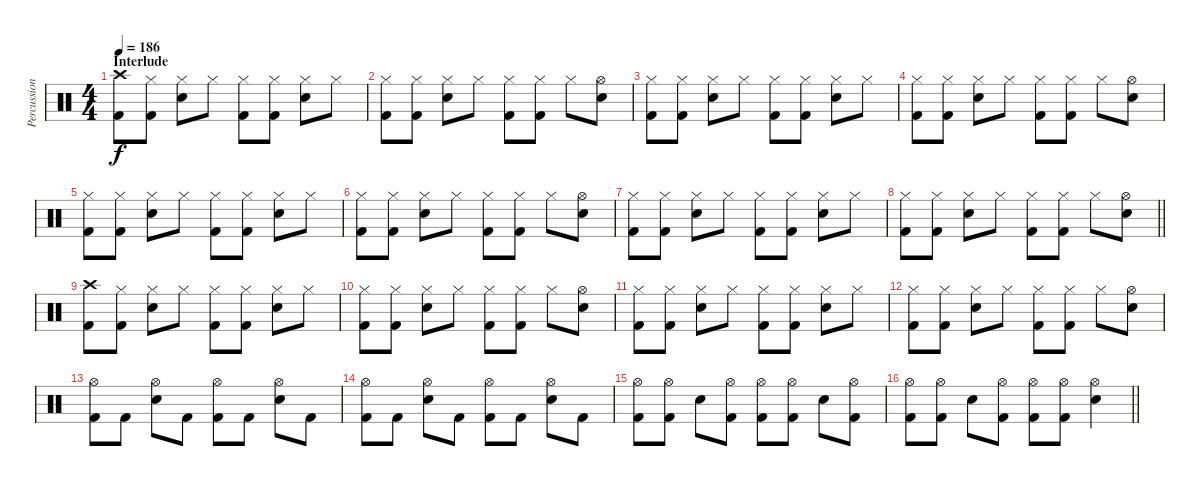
\track ("Percussion" "Percussion") {instrument percussion}
\staff {score}
\articulation defaults
\ts (4 4)
\section ("" "Interlude")
\tempo 186
\clef neutral
\ks c
("Crash high (hit)" "Kick (hit) 2").8{dy f} ("Hi-Hat (closed)" "Kick (hit) 2").8 ("Hi-Hat (closed)" "Electric Snare (hit)").8 "Hi-Hat (closed)".8 ("Hi-Hat (closed)" "Kick (hit) 2").8 ("Hi-Hat (closed)" "Kick (hit) 2").8 ("Hi-Hat (closed)" "Electric Snare (hit)").8 "Hi-Hat (closed)".8 |
("Hi-Hat (closed)" "Kick (hit) 2").8 ("Hi-Hat (closed)" "Kick (hit) 2").8 ("Hi-Hat (closed)" "Electric Snare (hit)").8 "Hi-Hat (closed)".8 ("Hi-Hat (closed)" "Kick (hit) 2").8 ("Hi-Hat (closed)" "Kick (hit) 2").8 "Hi-Hat (closed)".8 ("Hi-Hat (open)" "Electric Snare (hit)").8 |
("Hi-Hat (closed)" "Kick (hit) 2").8 ("Hi-Hat (closed)" "Kick (hit) 2").8 ("Hi-Hat (closed)" "Electric Snare (hit)").8 "Hi-Hat (closed)".8 ("Hi-Hat (closed)" "Kick (hit) 2").8 ("Hi-Hat (closed)" "Kick (hit) 2").8 ("Hi-Hat (closed)" "Electric Snare (hit)").8 "Hi-Hat (closed)".8 |
("Hi-Hat (closed)" "Kick (hit) 2").8 ("Hi-Hat (closed)" "Kick (hit) 2").8 ("Hi-Hat (closed)" "Electric Snare (hit)").8 "Hi-Hat (closed)".8 ("Hi-Hat (closed)" "Kick (hit) 2").8 ("Hi-Hat (closed)" "Kick (hit) 2").8 "Hi-Hat (closed)".8 ("Hi-Hat (open)" "Electric Snare (hit)").8 |
("Hi-Hat (closed)" "Kick (hit) 2").8 ("Hi-Hat (closed)" "Kick (hit) 2").8 ("Hi-Hat (closed)" "Electric Snare (hit)").8 "Hi-Hat (closed)".8 ("Hi-Hat (closed)" "Kick (hit) 2").8 ("Hi-Hat (closed)" "Kick (hit) 2").8 ("Hi-Hat (closed)" "Electric Snare (hit)").8 "Hi-Hat (closed)".8 |
("Hi-Hat (closed)" "Kick (hit) 2").8 ("Hi-Hat (closed)" "Kick (hit) 2").8 ("Hi-Hat (closed)" "Electric Snare (hit)").8 "Hi-Hat (closed)".8 ("Hi-Hat (closed)" "Kick (hit) 2").8 ("Hi-Hat (closed)" "Kick (hit) 2").8 "Hi-Hat (closed)".8 ("Hi-Hat (open)" "Electric Snare (hit)").8 |
("Hi-Hat (closed)" "Kick (hit) 2").8 ("Hi-Hat (closed)" "Kick (hit) 2").8 ("Hi-Hat (closed)" "Electric Snare (hit)").8 "Hi-Hat (closed)".8 ("Hi-Hat (closed)" "Kick (hit) 2").8 ("Hi-Hat (closed)" "Kick (hit) 2").8 ("Hi-Hat (closed)" "Electric Snare (hit)").8 "Hi-Hat (closed)".8 |
\barLineRight lightlight
("Hi-Hat (closed)" "Kick (hit) 2").8 ("Hi-Hat (closed)" "Kick (hit) 2").8 ("Hi-Hat (closed)" "Electric Snare (hit)").8 "Hi-Hat (closed)".8 ("Hi-Hat (closed)" "Kick (hit) 2").8 ("Hi-Hat (closed)" "Kick (hit) 2").8 "Hi-Hat (closed)".8 ("Hi-Hat (open)" "Electric Snare (hit)").8 |
("Crash high (hit)" "Kick (hit) 2").8 ("Hi-Hat (closed)" "Kick (hit) 2").8 ("Hi-Hat (closed)" "Electric Snare (hit)").8 "Hi-Hat (closed)".8 ("Hi-Hat (closed)" "Kick (hit) 2").8 ("Hi-Hat (closed)" "Kick (hit) 2").8 ("Hi-Hat (closed)" "Electric Snare (hit)").8 "Hi-Hat (closed)".8 |
("Hi-Hat (closed)" "Kick (hit) 2").8 ("Hi-Hat (closed)" "Kick (hit) 2").8 ("Hi-Hat (closed)" "Electric Snare (hit)").8 "Hi-Hat (closed)".8 ("Hi-Hat (closed)" "Kick (hit) 2").8 ("Hi-Hat (closed)" "Kick (hit) 2").8 "Hi-Hat (closed)".8 ("Hi-Hat (open)" "Electric Snare (hit)").8 |
("Hi-Hat (closed)" "Kick (hit) 2").8 ("Hi-Hat (closed)" "Kick (hit) 2").8 ("Hi-Hat (closed)" "Electric Snare (hit)").8 "Hi-Hat (closed)".8 ("Hi-Hat (closed)" "Kick (hit) 2").8 ("Hi-Hat (closed)" "Kick (hit) 2").8 ("Hi-Hat (closed)" "Electric Snare (hit)").8 "Hi-Hat (closed)".8 |
("Hi-Hat (closed)" "Kick (hit) 2").8 ("Hi-Hat (closed)" "Kick (hit) 2").8 ("Hi-Hat (closed)" "Electric Snare (hit)").8 "Hi-Hat (closed)".8 ("Hi-Hat (closed)" "Kick (hit) 2").8 ("Hi-Hat (closed)" "Kick (hit) 2").8 "Hi-Hat (closed)".8 ("Hi-Hat (open)" "Electric Snare (hit)").8 |
("Hi-Hat (open)" "Kick (hit) 2").8 "Kick (hit) 2".8 ("Hi-Hat (open)" "Electric Snare (hit)").8 "Kick (hit) 2".8 ("Hi-Hat (open)" "Kick (hit) 2").8 "Kick (hit) 2".8 ("Hi-Hat (open)" "Electric Snare (hit)").8 "Kick (hit) 2".8 |
("Hi-Hat (open)" "Kick (hit) 2").8 "Kick (hit) 2".8 ("Hi-Hat (open)" "Electric Snare (hit)").8 "Kick (hit) 2".8 ("Hi-Hat (open)" "Kick (hit) 2").8 "Kick (hit) 2".8 ("Hi-Hat (open)" "Electric Snare (hit)").8 "Kick (hit) 2".8 |
("Hi-Hat (open)" "Kick (hit) 2").8 ("Hi-Hat (open)" "Kick (hit) 2").8 "Electric Snare (hit)".8 ("Hi-Hat (open)" "Kick (hit) 2").8 ("Hi-Hat (open)" "Kick (hit) 2").8 ("Hi-Hat (open)" "Kick (hit) 2").8 "Electric Snare (hit)".8 ("Hi-Hat (open)" "Kick (hit) 2").8 |
\barLineRight lightlight
("Hi-Hat (open)" "Kick (hit) 2").8 ("Hi-Hat (open)" "Kick (hit) 2").8 "Electric Snare (hit)".8 ("Hi-Hat (open)" "Kick (hit) 2").8 ("Hi-Hat (open)" "Kick (hit) 2").8 ("Hi-Hat (open)" "Kick (hit) 2").8 ("Hi-Hat (open)" "Electric Snare (hit)").4
